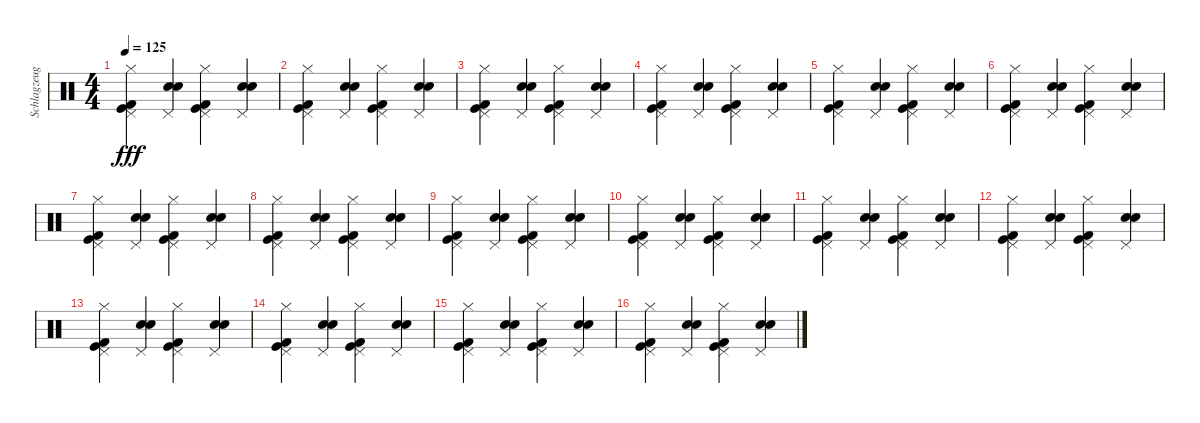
\track ("Schlagzeug" "Schlagzeug") {instrument percussion}
\staff {score}
\articulation defaults
\ts (4 4)
\tempo 125
\clef neutral
\ks c
("Pedal Hi-Hat (hit)" "Kick (hit)" "Kick (hit) 2" "Hi-Hat (closed)").4{dy fff} ("Pedal Hi-Hat (hit)" "Snare (hit) 2" "Electric Snare (hit)").4 ("Pedal Hi-Hat (hit)" "Kick (hit)" "Kick (hit) 2" "Hi-Hat (closed)").4 ("Pedal Hi-Hat (hit)" "Snare (hit) 2" "Electric Snare (hit)").4 |
("Pedal Hi-Hat (hit)" "Kick (hit)" "Kick (hit) 2" "Hi-Hat (closed)").4 ("Pedal Hi-Hat (hit)" "Snare (hit) 2" "Electric Snare (hit)").4 ("Pedal Hi-Hat (hit)" "Kick (hit)" "Kick (hit) 2" "Hi-Hat (closed)").4 ("Pedal Hi-Hat (hit)" "Snare (hit) 2" "Electric Snare (hit)").4 |
("Pedal Hi-Hat (hit)" "Kick (hit)" "Kick (hit) 2" "Hi-Hat (closed)").4 ("Pedal Hi-Hat (hit)" "Snare (hit) 2" "Electric Snare (hit)").4 ("Pedal Hi-Hat (hit)" "Kick (hit)" "Kick (hit) 2" "Hi-Hat (closed)").4 ("Pedal Hi-Hat (hit)" "Snare (hit) 2" "Electric Snare (hit)").4 |
("Pedal Hi-Hat (hit)" "Kick (hit)" "Kick (hit) 2" "Hi-Hat (closed)").4 ("Pedal Hi-Hat (hit)" "Snare (hit) 2" "Electric Snare (hit)").4 ("Pedal Hi-Hat (hit)" "Kick (hit)" "Kick (hit) 2" "Hi-Hat (closed)").4 ("Pedal Hi-Hat (hit)" "Snare (hit) 2" "Electric Snare (hit)").4 |
("Pedal Hi-Hat (hit)" "Kick (hit)" "Kick (hit) 2" "Hi-Hat (closed)").4 ("Pedal Hi-Hat (hit)" "Snare (hit) 2" "Electric Snare (hit)").4 ("Pedal Hi-Hat (hit)" "Kick (hit)" "Kick (hit) 2" "Hi-Hat (closed)").4 ("Pedal Hi-Hat (hit)" "Snare (hit) 2" "Electric Snare (hit)").4 |
("Pedal Hi-Hat (hit)" "Kick (hit)" "Kick (hit) 2" "Hi-Hat (closed)").4 ("Pedal Hi-Hat (hit)" "Snare (hit) 2" "Electric Snare (hit)").4 ("Pedal Hi-Hat (hit)" "Kick (hit)" "Kick (hit) 2" "Hi-Hat (closed)").4 ("Pedal Hi-Hat (hit)" "Snare (hit) 2" "Electric Snare (hit)").4 |
("Pedal Hi-Hat (hit)" "Kick (hit)" "Kick (hit) 2" "Hi-Hat (closed)").4 ("Pedal Hi-Hat (hit)" "Snare (hit) 2" "Electric Snare (hit)").4 ("Pedal Hi-Hat (hit)" "Kick (hit)" "Kick (hit) 2" "Hi-Hat (closed)").4 ("Pedal Hi-Hat (hit)" "Snare (hit) 2" "Electric Snare (hit)").4 |
("Pedal Hi-Hat (hit)" "Kick (hit)" "Kick (hit) 2" "Hi-Hat (closed)").4 ("Pedal Hi-Hat (hit)" "Snare (hit) 2" "Electric Snare (hit)").4 ("Pedal Hi-Hat (hit)" "Kick (hit)" "Kick (hit) 2" "Hi-Hat (closed)").4 ("Pedal Hi-Hat (hit)" "Snare (hit) 2" "Electric Snare (hit)").4 |
("Pedal Hi-Hat (hit)" "Kick (hit)" "Kick (hit) 2" "Hi-Hat (closed)").4 ("Pedal Hi-Hat (hit)" "Snare (hit) 2" "Electric Snare (hit)").4 ("Pedal Hi-Hat (hit)" "Kick (hit)" "Kick (hit) 2" "Hi-Hat (closed)").4 ("Pedal Hi-Hat (hit)" "Snare (hit) 2" "Electric Snare (hit)").4 |
("Pedal Hi-Hat (hit)" "Kick (hit)" "Kick (hit) 2" "Hi-Hat (closed)").4 ("Pedal Hi-Hat (hit)" "Snare (hit) 2" "Electric Snare (hit)").4 ("Pedal Hi-Hat (hit)" "Kick (hit)" "Kick (hit) 2" "Hi-Hat (closed)").4 ("Pedal Hi-Hat (hit)" "Snare (hit) 2" "Electric Snare (hit)").4 |
("Pedal Hi-Hat (hit)" "Kick (hit)" "Kick (hit) 2" "Hi-Hat (closed)").4 ("Pedal Hi-Hat (hit)" "Snare (hit) 2" "Electric Snare (hit)").4 ("Pedal Hi-Hat (hit)" "Kick (hit)" "Kick (hit) 2" "Hi-Hat (closed)").4 ("Pedal Hi-Hat (hit)" "Snare (hit) 2" "Electric Snare (hit)").4 |
("Pedal Hi-Hat (hit)" "Kick (hit)" "Kick (hit) 2" "Hi-Hat (closed)").4 ("Pedal Hi-Hat (hit)" "Snare (hit) 2" "Electric Snare (hit)").4 ("Pedal Hi-Hat (hit)" "Kick (hit)" "Kick (hit) 2" "Hi-Hat (closed)").4 ("Pedal Hi-Hat (hit)" "Snare (hit) 2" "Electric Snare (hit)").4 |
("Pedal Hi-Hat (hit)" "Kick (hit)" "Kick (hit) 2" "Hi-Hat (closed)").4 ("Pedal Hi-Hat (hit)" "Snare (hit) 2" "Electric Snare (hit)").4 ("Pedal Hi-Hat (hit)" "Kick (hit)" "Kick (hit) 2" "Hi-Hat (closed)").4 ("Pedal Hi-Hat (hit)" "Snare (hit) 2" "Electric Snare (hit)").4 |
("Pedal Hi-Hat (hit)" "Kick (hit)" "Kick (hit) 2" "Hi-Hat (closed)").4 ("Pedal Hi-Hat (hit)" "Snare (hit) 2" "Electric Snare (hit)").4 ("Pedal Hi-Hat (hit)" "Kick (hit)" "Kick (hit) 2" "Hi-Hat (closed)").4 ("Pedal Hi-Hat (hit)" "Snare (hit) 2" "Electric Snare (hit)").4 |
("Pedal Hi-Hat (hit)" "Kick (hit)" "Kick (hit) 2" "Hi-Hat (closed)").4 ("Pedal Hi-Hat (hit)" "Snare (hit) 2" "Electric Snare (hit)").4 ("Pedal Hi-Hat (hit)" "Kick (hit)" "Kick (hit) 2" "Hi-Hat (closed)").4 ("Pedal Hi-Hat (hit)" "Snare (hit) 2" "Electric Snare (hit)").4 |
("Pedal Hi-Hat (hit)" "Kick (hit)" "Kick (hit) 2" "Hi-Hat (closed)").4 ("Pedal Hi-Hat (hit)" "Snare (hit) 2" "Electric Snare (hit)").4 ("Pedal Hi-Hat (hit)" "Kick (hit)" "Kick (hit) 2" "Hi-Hat (closed)").4 ("Pedal Hi-Hat (hit)" "Snare (hit) 2" "Electric Snare (hit)").4
